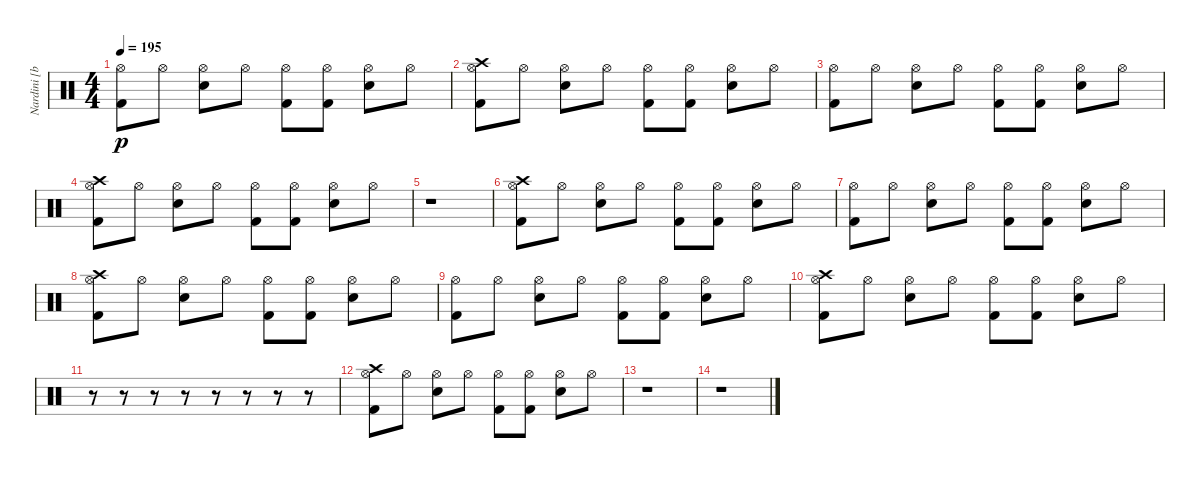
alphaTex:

\track ("Nardini [batteria]" "Nardini [b") {instrument percussion}
\staff {score}
\articulation defaults
\ts (4 4)
\tempo 195
\clef neutral
\ks c
("Hi-Hat (open)" "Kick (hit) 2").8{dy p} "Hi-Hat (open)".8 ("Hi-Hat (open)" "Electric Snare (hit)").8 "Hi-Hat (open)".8 ("Hi-Hat (open)" "Kick (hit) 2").8 ("Hi-Hat (open)" "Kick (hit) 2").8 ("Hi-Hat (open)" "Electric Snare (hit)").8 "Hi-Hat (open)".8 |
("Crash high (hit)" "Hi-Hat (open)" "Kick (hit) 2").8 "Hi-Hat (open)".8 ("Hi-Hat (open)" "Electric Snare (hit)").8 "Hi-Hat (open)".8 ("Hi-Hat (open)" "Kick (hit) 2").8 ("Hi-Hat (open)" "Kick (hit) 2").8 ("Hi-Hat (open)" "Electric Snare (hit)").8 "Hi-Hat (open)".8 |
("Hi-Hat (open)" "Kick (hit) 2").8 "Hi-Hat (open)".8 ("Hi-Hat (open)" "Electric Snare (hit)").8 "Hi-Hat (open)".8 ("Hi-Hat (open)" "Kick (hit) 2").8 ("Hi-Hat (open)" "Kick (hit) 2").8 ("Hi-Hat (open)" "Electric Snare (hit)").8 "Hi-Hat (open)".8 |
("Crash high (hit)" "Hi-Hat (open)" "Kick (hit) 2").8 "Hi-Hat (open)".8 ("Hi-Hat (open)" "Electric Snare (hit)").8 "Hi-Hat (open)".8 ("Hi-Hat (open)" "Kick (hit) 2").8 ("Hi-Hat (open)" "Kick (hit) 2").8 ("Hi-Hat (open)" "Electric Snare (hit)").8 "Hi-Hat (open)".8 |
r.1 |
("Crash high (hit)" "Hi-Hat (open)" "Kick (hit) 2").8 "Hi-Hat (open)".8 ("Hi-Hat (open)" "Electric Snare (hit)").8 "Hi-Hat (open)".8 ("Hi-Hat (open)" "Kick (hit) 2").8 ("Hi-Hat (open)" "Kick (hit) 2").8 ("Hi-Hat (open)" "Electric Snare (hit)").8 "Hi-Hat (open)".8 |
("Hi-Hat (open)" "Kick (hit) 2").8 "Hi-Hat (open)".8 ("Hi-Hat (open)" "Electric Snare (hit)").8 "Hi-Hat (open)".8 ("Hi-Hat (open)" "Kick (hit) 2").8 ("Hi-Hat (open)" "Kick (hit) 2").8 ("Hi-Hat (open)" "Electric Snare (hit)").8 "Hi-Hat (open)".8 |
("Crash high (hit)" "Hi-Hat (open)" "Kick (hit) 2").8 "Hi-Hat (open)".8 ("Hi-Hat (open)" "Electric Snare (hit)").8 "Hi-Hat (open)".8 ("Hi-Hat (open)" "Kick (hit) 2").8 ("Hi-Hat (open)" "Kick (hit) 2").8 ("Hi-Hat (open)" "Electric Snare (hit)").8 "Hi-Hat (open)".8 |
("Hi-Hat (open)" "Kick (hit) 2").8 "Hi-Hat (open)".8 ("Hi-Hat (open)" "Electric Snare (hit)").8 "Hi-Hat (open)".8 ("Hi-Hat (open)" "Kick (hit) 2").8 ("Hi-Hat (open)" "Kick (hit) 2").8 ("Hi-Hat (open)" "Electric Snare (hit)").8 "Hi-Hat (open)".8 |
("Crash high (hit)" "Hi-Hat (open)" "Kick (hit) 2").8 "Hi-Hat (open)".8 ("Hi-Hat (open)" "Electric Snare (hit)").8 "Hi-Hat (open)".8 ("Hi-Hat (open)" "Kick (hit) 2").8 ("Hi-Hat (open)" "Kick (hit) 2").8 ("Hi-Hat (open)" "Electric Snare (hit)").8 "Hi-Hat (open)".8 |
r.8 r.8 r.8 r.8 r.8 r.8 r.8 r.8 |
("Crash high (hit)" "Hi-Hat (open)" "Kick (hit) 2").8 "Hi-Hat (open)".8 ("Hi-Hat (open)" "Electric Snare (hit)").8 "Hi-Hat (open)".8 ("Hi-Hat (open)" "Kick (hit) 2").8 ("Hi-Hat (open)" "Kick (hit) 2").8 ("Hi-Hat (open)" "Electric Snare (hit)").8 "Hi-Hat (open)".8 |
r.1 |
r.1
